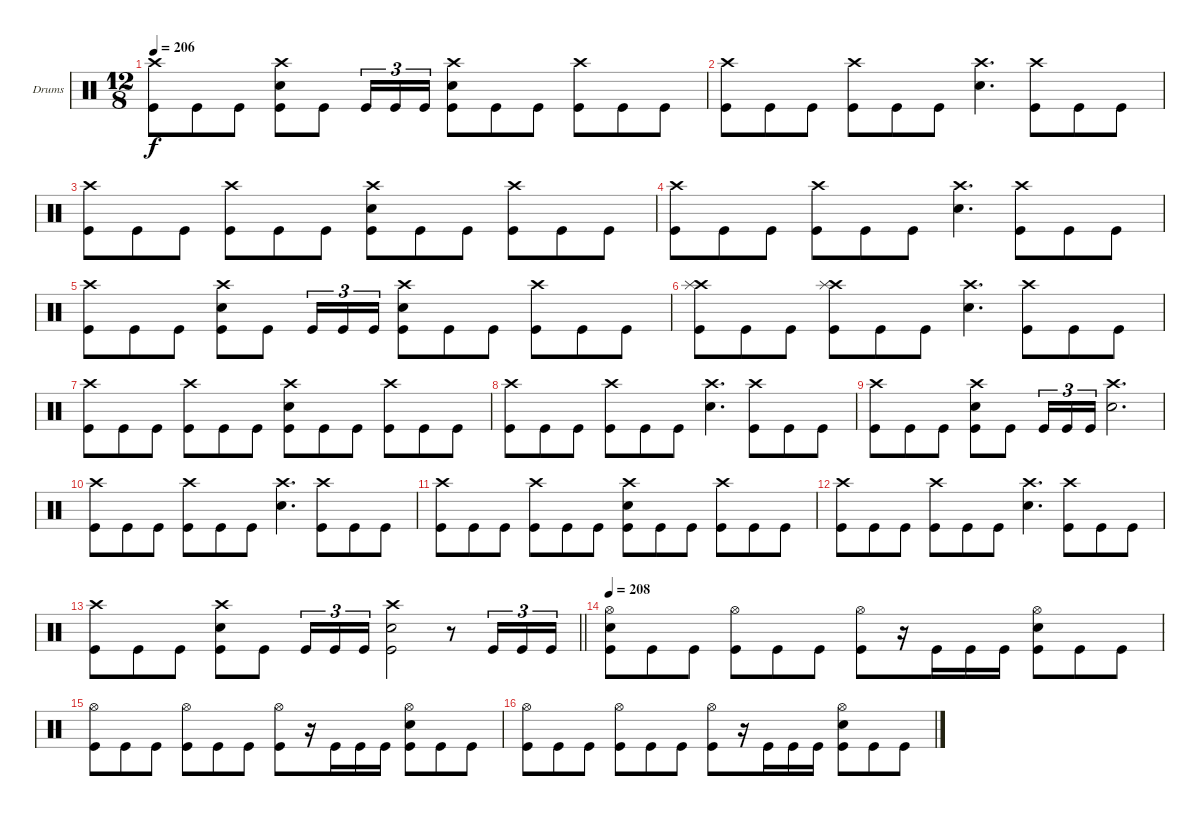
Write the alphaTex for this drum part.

\bracketExtendMode groupsimilarinstruments
\firstSystemTrackNameOrientation horizontal
\otherSystemsTrackNameOrientation horizontal
\track ("Drumkit" "Drums") {instrument percussion}
\staff {score}
\articulation defaults
\ts (12 8)
\tempo 206
\clef neutral
\ks c
("Crash high (hit)" "Kick (hit)").8{dy f} "Kick (hit)".8 "Kick (hit)".8 ("Crash high (hit)" "Kick (hit)" "Snare (hit) 2").8 "Kick (hit)".8 "Kick (hit)".16{tu (3 2)} "Kick (hit)".16{tu (3 2)} "Kick (hit)".16{tu (3 2)} ("Crash high (hit)" "Kick (hit)" "Snare (hit) 2").8 "Kick (hit)".8 "Kick (hit)".8 ("Crash high (hit)" "Kick (hit)").8 "Kick (hit)".8 "Kick (hit)".8 |
("Crash high (hit)" "Kick (hit)").8 "Kick (hit)".8 "Kick (hit)".8 ("Crash high (hit)" "Kick (hit)").8 "Kick (hit)".8 "Kick (hit)".8 ("Crash high (hit)" "Snare (hit) 2").4{d} ("Crash high (hit)" "Kick (hit)").8 "Kick (hit)".8 "Kick (hit)".8 |
("Crash high (hit)" "Kick (hit)").8 "Kick (hit)".8 "Kick (hit)".8 ("Crash high (hit)" "Kick (hit)").8 "Kick (hit)".8 "Kick (hit)".8 ("Crash high (hit)" "Kick (hit)" "Snare (hit) 2").8 "Kick (hit)".8 "Kick (hit)".8 ("Crash high (hit)" "Kick (hit)").8 "Kick (hit)".8 "Kick (hit)".8 |
("Crash high (hit)" "Kick (hit)").8 "Kick (hit)".8 "Kick (hit)".8 ("Crash high (hit)" "Kick (hit)").8 "Kick (hit)".8 "Kick (hit)".8 ("Crash high (hit)" "Snare (hit) 2").4{d} ("Crash high (hit)" "Kick (hit)").8 "Kick (hit)".8 "Kick (hit)".8 |
("Crash high (hit)" "Kick (hit)").8 "Kick (hit)".8 "Kick (hit)".8 ("Crash high (hit)" "Kick (hit)" "Snare (hit) 2").8 "Kick (hit)".8 "Kick (hit)".16{tu (3 2)} "Kick (hit)".16{tu (3 2)} "Kick (hit)".16{tu (3 2)} ("Crash high (hit)" "Kick (hit)" "Snare (hit) 2").8 "Kick (hit)".8 "Kick (hit)".8 ("Crash high (hit)" "Kick (hit)").8 "Kick (hit)".8 "Kick (hit)".8 |
("Crash high (hit)" "Kick (hit)" "Splash (hit)").8 "Kick (hit)".8 "Kick (hit)".8 ("Crash high (hit)" "Kick (hit)" "Splash (hit)").8 "Kick (hit)".8 "Kick (hit)".8 ("Crash high (hit)" "Snare (hit) 2").4{d} ("Crash high (hit)" "Kick (hit)").8 "Kick (hit)".8 "Kick (hit)".8 |
("Crash high (hit)" "Kick (hit)").8 "Kick (hit)".8 "Kick (hit)".8 ("Crash high (hit)" "Kick (hit)").8 "Kick (hit)".8 "Kick (hit)".8 ("Crash high (hit)" "Kick (hit)" "Snare (hit) 2").8 "Kick (hit)".8 "Kick (hit)".8 ("Crash high (hit)" "Kick (hit)").8 "Kick (hit)".8 "Kick (hit)".8 |
("Crash high (hit)" "Kick (hit)").8 "Kick (hit)".8 "Kick (hit)".8 ("Crash high (hit)" "Kick (hit)").8 "Kick (hit)".8 "Kick (hit)".8 ("Crash high (hit)" "Snare (hit) 2").4{d} ("Crash high (hit)" "Kick (hit)").8 "Kick (hit)".8 "Kick (hit)".8 |
("Crash high (hit)" "Kick (hit)").8 "Kick (hit)".8 "Kick (hit)".8 ("Crash high (hit)" "Kick (hit)" "Snare (hit) 2").8 "Kick (hit)".8 "Kick (hit)".16{tu (3 2)} "Kick (hit)".16{tu (3 2)} "Kick (hit)".16{tu (3 2)} ("Crash high (hit)" "Snare (hit) 2").2{d} |
("Crash high (hit)" "Kick (hit)").8 "Kick (hit)".8 "Kick (hit)".8 ("Crash high (hit)" "Kick (hit)").8 "Kick (hit)".8 "Kick (hit)".8 ("Crash high (hit)" "Snare (hit) 2").4{d} ("Crash high (hit)" "Kick (hit)").8 "Kick (hit)".8 "Kick (hit)".8 |
("Crash high (hit)" "Kick (hit)").8 "Kick (hit)".8 "Kick (hit)".8 ("Crash high (hit)" "Kick (hit)").8 "Kick (hit)".8 "Kick (hit)".8 ("Crash high (hit)" "Kick (hit)" "Snare (hit) 2").8 "Kick (hit)".8 "Kick (hit)".8 ("Crash high (hit)" "Kick (hit)").8 "Kick (hit)".8 "Kick (hit)".8 |
("Crash high (hit)" "Kick (hit)").8 "Kick (hit)".8 "Kick (hit)".8 ("Crash high (hit)" "Kick (hit)").8 "Kick (hit)".8 "Kick (hit)".8 ("Crash high (hit)" "Snare (hit) 2").4{d} ("Crash high (hit)" "Kick (hit)").8 "Kick (hit)".8 "Kick (hit)".8 |
\barLineRight lightlight
("Crash high (hit)" "Kick (hit)").8 "Kick (hit)".8 "Kick (hit)".8 ("Crash high (hit)" "Kick (hit)" "Snare (hit) 2").8 "Kick (hit)".8 "Kick (hit)".16{tu (3 2)} "Kick (hit)".16{tu (3 2)} "Kick (hit)".16{tu (3 2)} ("Crash high (hit)" "Kick (hit)" "Snare (hit) 2").2 r.8 "Kick (hit)".16{tu (3 2)} "Kick (hit)".16{tu (3 2)} "Kick (hit)".16{tu (3 2)} |
\tempo 208
("Kick (hit)" "Snare (hit) 2" "Hi-Hat (open)").8 "Kick (hit)".8 "Kick (hit)".8 ("Kick (hit)" "Hi-Hat (open)").8 "Kick (hit)".8 "Kick (hit)".8 ("Kick (hit)" "Hi-Hat (open)").8 r.16 "Kick (hit)".16 "Kick (hit)".16 "Kick (hit)".16 ("Kick (hit)" "Hi-Hat (open)" "Snare (hit) 2").8 "Kick (hit)".8 "Kick (hit)".8 |
("Kick (hit)" "Hi-Hat (open)").8 "Kick (hit)".8 "Kick (hit)".8 ("Kick (hit)" "Hi-Hat (open)").8 "Kick (hit)".8 "Kick (hit)".8 ("Kick (hit)" "Hi-Hat (open)").8 r.16 "Kick (hit)".16 "Kick (hit)".16 "Kick (hit)".16 ("Kick (hit)" "Hi-Hat (open)" "Snare (hit) 2").8 "Kick (hit)".8 "Kick (hit)".8 |
("Kick (hit)" "Hi-Hat (open)").8 "Kick (hit)".8 "Kick (hit)".8 ("Kick (hit)" "Hi-Hat (open)").8 "Kick (hit)".8 "Kick (hit)".8 ("Kick (hit)" "Hi-Hat (open)").8 r.16 "Kick (hit)".16 "Kick (hit)".16 "Kick (hit)".16 ("Kick (hit)" "Hi-Hat (open)" "Snare (hit) 2").8 "Kick (hit)".8 "Kick (hit)".8
